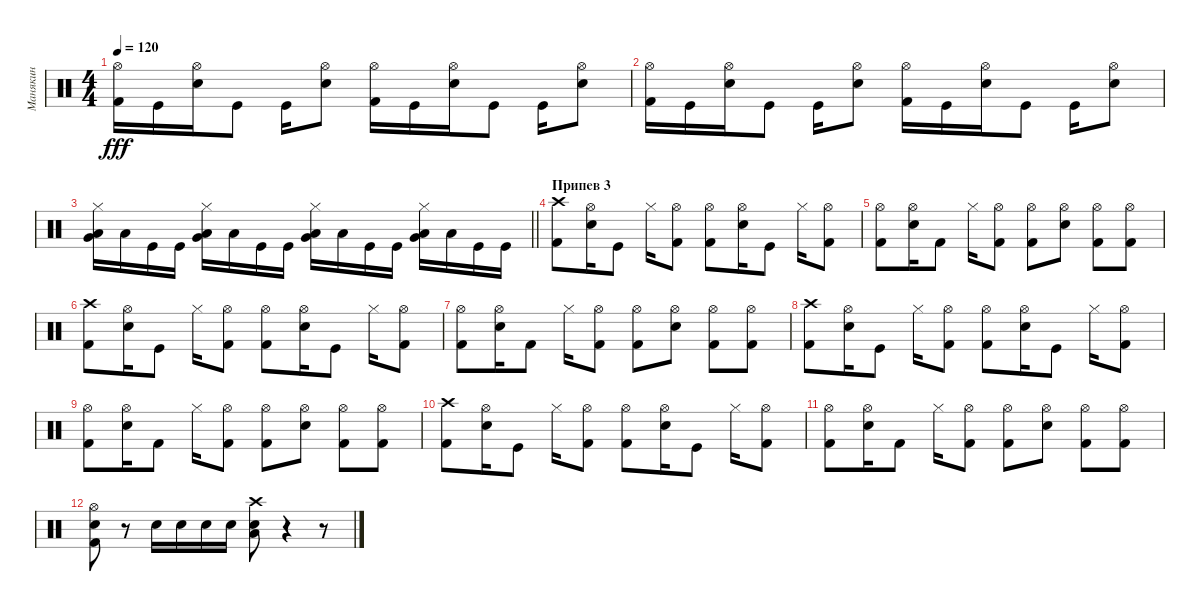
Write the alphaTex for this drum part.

\track ("Манякин" "Манякин") {instrument percussion}
\staff {score}
\articulation defaults
\ts (4 4)
\tempo 120
\clef neutral
\ks c
("Hi-Hat (open)" "Kick (hit) 2").16{dy fff} "Kick (hit)".16 ("Hi-Hat (open)" "Snare (hit) 2").16 "Kick (hit)".8 "Kick (hit)".16 ("Hi-Hat (open)" "Snare (hit) 2").8 ("Kick (hit) 2" "Hi-Hat (open)").16 "Kick (hit)".16 ("Hi-Hat (open)" "Snare (hit) 2").16 "Kick (hit)".8 "Kick (hit)".16 ("Hi-Hat (open)" "Snare (hit) 2").8 |
("Hi-Hat (open)" "Kick (hit) 2").16 "Kick (hit)".16 ("Hi-Hat (open)" "Snare (hit) 2").16 "Kick (hit)".8 "Kick (hit)".16 ("Hi-Hat (open)" "Snare (hit) 2").8 ("Kick (hit) 2" "Hi-Hat (open)").16 "Kick (hit)".16 ("Hi-Hat (open)" "Snare (hit) 2").16 "Kick (hit)".8 "Kick (hit)".16 ("Hi-Hat (open)" "Snare (hit) 2").8 |
\barLineRight lightlight
("Hi-Hat (closed)" "Low Floor Tom (hit)" "Very Low Tom (hit)").16 "Low Floor Tom (hit)".16 "Kick (hit)".16 "Kick (hit)".16 ("Hi-Hat (closed)" "Low Floor Tom (hit)" "Very Low Tom (hit)").16 "Low Floor Tom (hit)".16 "Kick (hit)".16 "Kick (hit)".16 ("Hi-Hat (closed)" "Low Tom (hit)" "Very Low Tom (hit)").16 "Low Floor Tom (hit)".16 "Kick (hit)".16 "Kick (hit)".16 ("Hi-Hat (closed)" "Very Low Tom (hit)" "Low Tom (hit)").16 "Low Floor Tom (hit)".16 "Kick (hit)".16 "Kick (hit)".16 |
\section ("" "Припев 3")
("Crash high (hit)" "Kick (hit) 2").8 ("Hi-Hat (open)" "Snare (hit) 2").16 "Kick (hit)".8 "Hi-Hat (closed)".16 ("Hi-Hat (open)" "Kick (hit) 2").8 ("Hi-Hat (open)" "Kick (hit) 2").8 ("Hi-Hat (open)" "Snare (hit) 2").16 "Kick (hit)".8 "Hi-Hat (closed)".16 ("Kick (hit) 2" "Hi-Hat (open)").8 |
("Hi-Hat (open)" "Kick (hit) 2").8 ("Hi-Hat (open)" "Snare (hit) 2").16 "Kick (hit) 2".8 "Hi-Hat (closed)".16 ("Hi-Hat (open)" "Kick (hit) 2").8 ("Kick (hit) 2" "Hi-Hat (open)").8 ("Hi-Hat (open)" "Snare (hit) 2").8 ("Hi-Hat (open)" "Kick (hit) 2").8 ("Hi-Hat (open)" "Kick (hit) 2").8 |
("Crash high (hit)" "Kick (hit) 2").8 ("Hi-Hat (open)" "Snare (hit) 2").16 "Kick (hit)".8 "Hi-Hat (closed)".16 ("Hi-Hat (open)" "Kick (hit) 2").8 ("Hi-Hat (open)" "Kick (hit) 2").8 ("Hi-Hat (open)" "Snare (hit) 2").16 "Kick (hit)".8 "Hi-Hat (closed)".16 ("Kick (hit) 2" "Hi-Hat (open)").8 |
("Hi-Hat (open)" "Kick (hit) 2").8 ("Hi-Hat (open)" "Snare (hit) 2").16 "Kick (hit) 2".8 "Hi-Hat (closed)".16 ("Hi-Hat (open)" "Kick (hit) 2").8 ("Kick (hit) 2" "Hi-Hat (open)").8 ("Hi-Hat (open)" "Snare (hit) 2").8 ("Hi-Hat (open)" "Kick (hit) 2").8 ("Hi-Hat (open)" "Kick (hit) 2").8 |
("Crash high (hit)" "Kick (hit) 2").8 ("Hi-Hat (open)" "Snare (hit) 2").16 "Kick (hit)".8 "Hi-Hat (closed)".16 ("Hi-Hat (open)" "Kick (hit) 2").8 ("Hi-Hat (open)" "Kick (hit) 2").8 ("Hi-Hat (open)" "Snare (hit) 2").16 "Kick (hit)".8 "Hi-Hat (closed)".16 ("Kick (hit) 2" "Hi-Hat (open)").8 |
("Hi-Hat (open)" "Kick (hit) 2").8 ("Hi-Hat (open)" "Snare (hit) 2").16 "Kick (hit) 2".8 "Hi-Hat (closed)".16 ("Hi-Hat (open)" "Kick (hit) 2").8 ("Kick (hit) 2" "Hi-Hat (open)").8 ("Hi-Hat (open)" "Snare (hit) 2").8 ("Hi-Hat (open)" "Kick (hit) 2").8 ("Hi-Hat (open)" "Kick (hit) 2").8 |
("Crash high (hit)" "Kick (hit) 2").8 ("Hi-Hat (open)" "Snare (hit) 2").16 "Kick (hit)".8 "Hi-Hat (closed)".16 ("Hi-Hat (open)" "Kick (hit) 2").8 ("Hi-Hat (open)" "Kick (hit) 2").8 ("Hi-Hat (open)" "Snare (hit) 2").16 "Kick (hit)".8 "Hi-Hat (closed)".16 ("Kick (hit) 2" "Hi-Hat (open)").8 |
("Hi-Hat (open)" "Kick (hit) 2").8 ("Hi-Hat (open)" "Snare (hit) 2").16 "Kick (hit) 2".8 "Hi-Hat (closed)".16 ("Hi-Hat (open)" "Kick (hit) 2").8 ("Kick (hit) 2" "Hi-Hat (open)").8 ("Hi-Hat (open)" "Snare (hit) 2").8 ("Hi-Hat (open)" "Kick (hit) 2").8 ("Hi-Hat (open)" "Kick (hit) 2").8 |
("Hi-Hat (open)" "Snare (hit) 2" "Kick (hit) 2").8 r.8 "Snare (hit) 2".16 "Electric Snare (hit)".16 "Snare (hit) 2".16 "Electric Snare (hit)".16 ("Crash high (hit)" "Low Floor Tom (hit)" "Electric Snare (hit)").8 r.4 r.8
